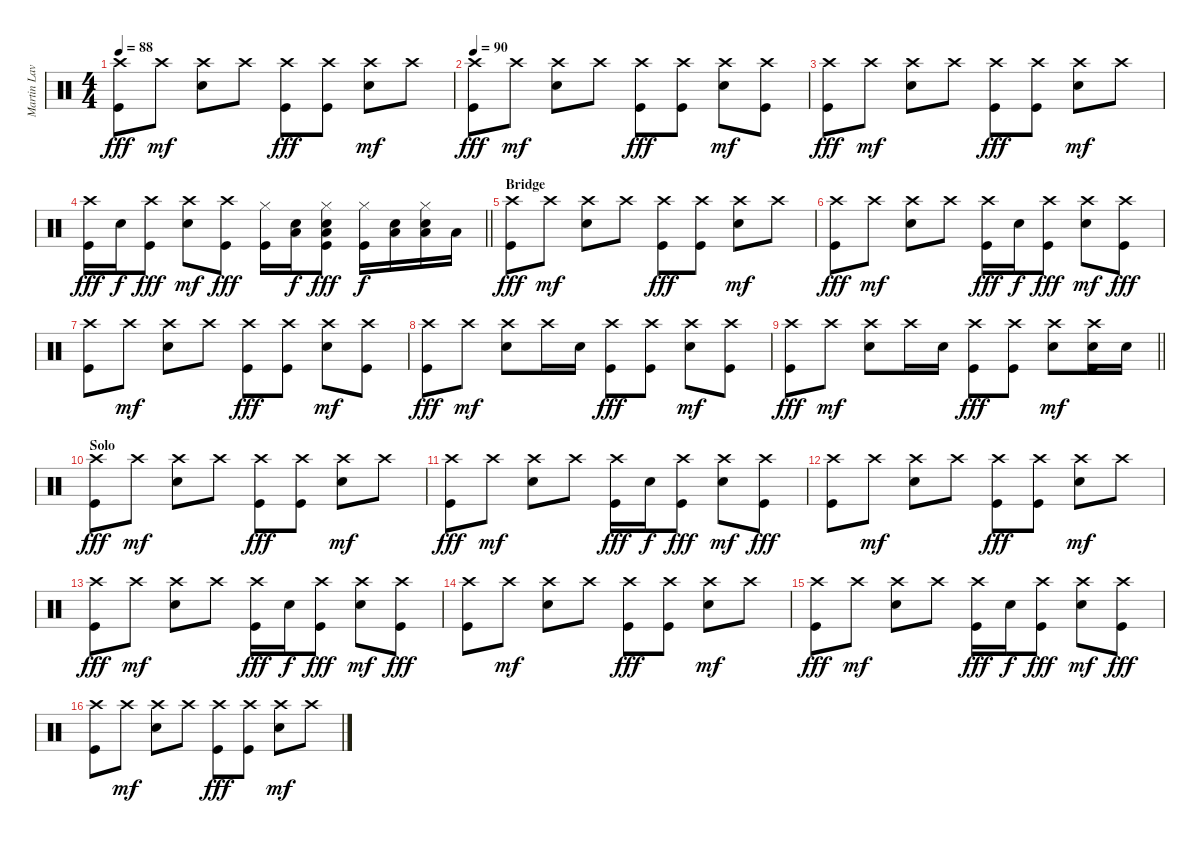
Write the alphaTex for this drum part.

\track ("Martin Lavalle" "Martin Lav") {instrument percussion}
\staff {score}
\articulation defaults
\ts (4 4)
\tempo 88
\clef neutral
\ks c
("Crash high (hit)" "Kick (hit)").8{dy fff} "Crash high (hit)".8{dy mf} ("Crash high (hit)" "Snare (hit) 2").8 "Crash high (hit)".8 ("Crash high (hit)" "Kick (hit)").8{dy fff} ("Crash high (hit)" "Kick (hit)").8 ("Crash high (hit)" "Snare (hit) 2").8{dy mf} "Crash high (hit)".8 |
\tempo 90
("Crash high (hit)" "Kick (hit)").8{dy fff} "Crash high (hit)".8{dy mf} ("Crash high (hit)" "Snare (hit) 2").8 "Crash high (hit)".8 ("Crash high (hit)" "Kick (hit)").8{dy fff} ("Crash high (hit)" "Kick (hit)").8 ("Crash high (hit)" "Snare (hit) 2").8{dy mf} ("Crash high (hit)" "Kick (hit)").8 |
("Crash high (hit)" "Kick (hit)").8{dy fff} "Crash high (hit)".8{dy mf} ("Crash high (hit)" "Snare (hit) 2").8 "Crash high (hit)".8 ("Crash high (hit)" "Kick (hit)").8{dy fff} ("Crash high (hit)" "Kick (hit)").8 ("Crash high (hit)" "Snare (hit) 2").8{dy mf} "Crash high (hit)".8 |
\barLineRight lightlight
("Crash high (hit)" "Kick (hit)").16{dy fff} "Snare (hit) 2".16{dy f} ("Crash high (hit)" "Kick (hit)").8{dy fff} ("Crash high (hit)" "Snare (hit) 2").8{dy mf} ("Crash high (hit)" "Kick (hit)").8{dy fff} ("Hi-Hat (closed)" "Kick (hit)").16 ("Low Tom (hit)" "Snare (hit) 2").16{dy f} ("Hi-Hat (closed)" "Low Tom (hit)" "Snare (hit) 2" "Kick (hit)").8{dy fff} ("Hi-Hat (closed)" "Kick (hit)").16{dy f} ("Low Tom (hit)" "Snare (hit) 2").16 ("Hi-Hat (closed)" "Low Tom (hit)" "Snare (hit) 2").16 "Low Tom (hit)".16 |
\section ("" "Bridge")
("Crash high (hit)" "Kick (hit)").8{dy fff} "Crash high (hit)".8{dy mf} ("Crash high (hit)" "Snare (hit) 2").8 "Crash high (hit)".8 ("Crash high (hit)" "Kick (hit)").8{dy fff} ("Crash high (hit)" "Kick (hit)").8 ("Crash high (hit)" "Snare (hit) 2").8{dy mf} "Crash high (hit)".8 |
("Crash high (hit)" "Kick (hit)").8{dy fff} "Crash high (hit)".8{dy mf} ("Crash high (hit)" "Snare (hit) 2").8 "Crash high (hit)".8 ("Crash high (hit)" "Kick (hit)").16{dy fff} "Snare (hit) 2".16{dy f} ("Crash high (hit)" "Kick (hit)").8{dy fff} ("Crash high (hit)" "Snare (hit) 2").8{dy mf} ("Crash high (hit)" "Kick (hit)").8{dy fff} |
("Crash high (hit)" "Kick (hit)").8 "Crash high (hit)".8{dy mf} ("Crash high (hit)" "Snare (hit) 2").8 "Crash high (hit)".8 ("Crash high (hit)" "Kick (hit)").8{dy fff} ("Crash high (hit)" "Kick (hit)").8 ("Crash high (hit)" "Snare (hit) 2").8{dy mf} ("Crash high (hit)" "Kick (hit)").8 |
("Crash high (hit)" "Kick (hit)").8{dy fff} "Crash high (hit)".8{dy mf} ("Crash high (hit)" "Snare (hit) 2").8 "Crash high (hit)".16 "Snare (hit) 2".16 ("Crash high (hit)" "Kick (hit)").8{dy fff} ("Crash high (hit)" "Kick (hit)").8 ("Crash high (hit)" "Snare (hit) 2").8{dy mf} ("Crash high (hit)" "Kick (hit)").8 |
\barLineRight lightlight
("Crash high (hit)" "Kick (hit)").8{dy fff} "Crash high (hit)".8{dy mf} ("Crash high (hit)" "Snare (hit) 2").8 "Crash high (hit)".16 "Snare (hit) 2".16 ("Crash high (hit)" "Kick (hit)").8{dy fff} ("Crash high (hit)" "Kick (hit)").8 ("Crash high (hit)" "Snare (hit) 2").8{dy mf} ("Crash high (hit)" "Snare (hit) 2" "Kick (hit)").16 "Snare (hit) 2".16 |
\section ("" "Solo")
("Crash high (hit)" "Kick (hit)").8{dy fff} "Crash high (hit)".8{dy mf} ("Crash high (hit)" "Snare (hit) 2").8 "Crash high (hit)".8 ("Crash high (hit)" "Kick (hit)").8{dy fff} ("Crash high (hit)" "Kick (hit)").8 ("Crash high (hit)" "Snare (hit) 2").8{dy mf} "Crash high (hit)".8 |
("Crash high (hit)" "Kick (hit)").8{dy fff} "Crash high (hit)".8{dy mf} ("Crash high (hit)" "Snare (hit) 2").8 "Crash high (hit)".8 ("Crash high (hit)" "Kick (hit)").16{dy fff} "Snare (hit) 2".16{dy f} ("Crash high (hit)" "Kick (hit)").8{dy fff} ("Crash high (hit)" "Snare (hit) 2").8{dy mf} ("Crash high (hit)" "Kick (hit)").8{dy fff} |
("Crash high (hit)" "Kick (hit)").8 "Crash high (hit)".8{dy mf} ("Crash high (hit)" "Snare (hit) 2").8 "Crash high (hit)".8 ("Crash high (hit)" "Kick (hit)").8{dy fff} ("Crash high (hit)" "Kick (hit)").8 ("Crash high (hit)" "Snare (hit) 2").8{dy mf} "Crash high (hit)".8 |
("Crash high (hit)" "Kick (hit)").8{dy fff} "Crash high (hit)".8{dy mf} ("Crash high (hit)" "Snare (hit) 2").8 "Crash high (hit)".8 ("Crash high (hit)" "Kick (hit)").16{dy fff} "Snare (hit) 2".16{dy f} ("Crash high (hit)" "Kick (hit)").8{dy fff} ("Crash high (hit)" "Snare (hit) 2").8{dy mf} ("Crash high (hit)" "Kick (hit)").8{dy fff} |
("Crash high (hit)" "Kick (hit)").8 "Crash high (hit)".8{dy mf} ("Crash high (hit)" "Snare (hit) 2").8 "Crash high (hit)".8 ("Crash high (hit)" "Kick (hit)").8{dy fff} ("Crash high (hit)" "Kick (hit)").8 ("Crash high (hit)" "Snare (hit) 2").8{dy mf} "Crash high (hit)".8 |
("Crash high (hit)" "Kick (hit)").8{dy fff} "Crash high (hit)".8{dy mf} ("Crash high (hit)" "Snare (hit) 2").8 "Crash high (hit)".8 ("Crash high (hit)" "Kick (hit)").16{dy fff} "Snare (hit) 2".16{dy f} ("Crash high (hit)" "Kick (hit)").8{dy fff} ("Crash high (hit)" "Snare (hit) 2").8{dy mf} ("Crash high (hit)" "Kick (hit)").8{dy fff} |
("Crash high (hit)" "Kick (hit)").8 "Crash high (hit)".8{dy mf} ("Crash high (hit)" "Snare (hit) 2").8 "Crash high (hit)".8 ("Crash high (hit)" "Kick (hit)").8{dy fff} ("Crash high (hit)" "Kick (hit)").8 ("Crash high (hit)" "Snare (hit) 2").8{dy mf} "Crash high (hit)".8
